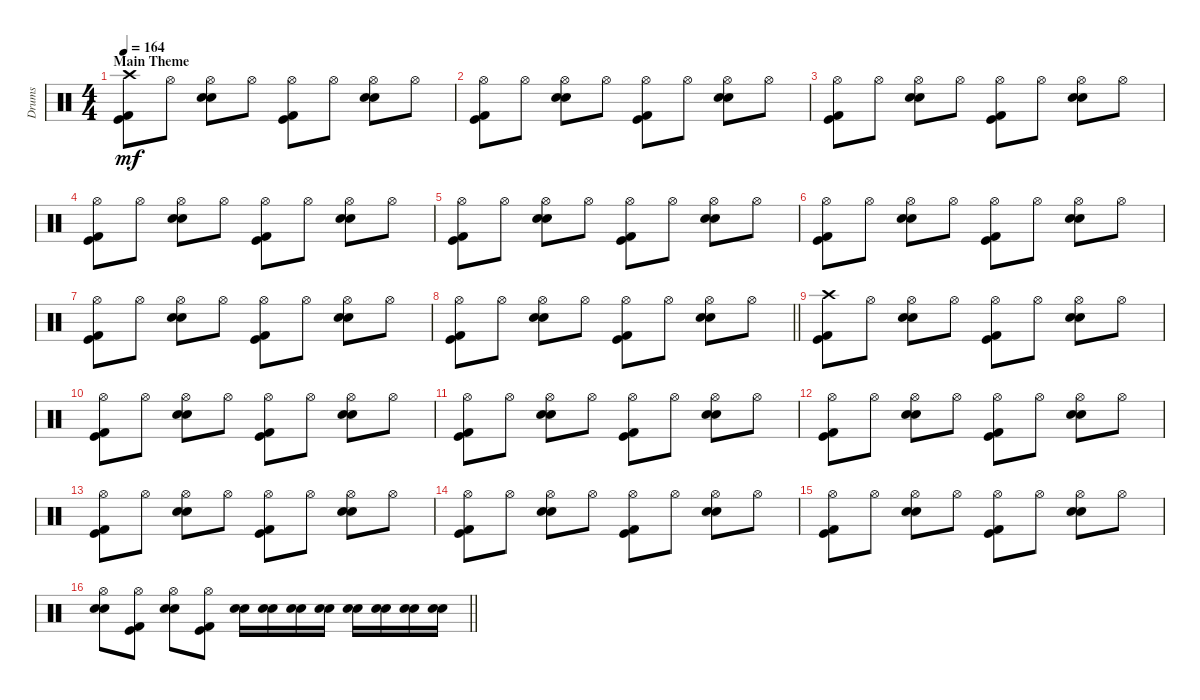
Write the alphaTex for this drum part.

\track ("Drums" "Drums") {instrument percussion}
\staff {score}
\articulation defaults
\ts (4 4)
\section ("" "Main Theme")
\tempo 164
\clef neutral
\ks c
("Crash high (hit)" "Kick (hit) 2" "Kick (hit)").8{dy mf} "Hi-Hat (open)".8 ("Hi-Hat (open)" "Snare (hit) 2" "Electric Snare (hit)").8 "Hi-Hat (open)".8 ("Hi-Hat (open)" "Kick (hit) 2" "Kick (hit)").8 "Hi-Hat (open)".8 ("Hi-Hat (open)" "Snare (hit) 2" "Electric Snare (hit)").8 "Hi-Hat (open)".8 |
("Hi-Hat (open)" "Kick (hit) 2" "Kick (hit)").8 "Hi-Hat (open)".8 ("Hi-Hat (open)" "Snare (hit) 2" "Electric Snare (hit)").8 "Hi-Hat (open)".8 ("Hi-Hat (open)" "Kick (hit) 2" "Kick (hit)").8 "Hi-Hat (open)".8 ("Hi-Hat (open)" "Snare (hit) 2" "Electric Snare (hit)").8 "Hi-Hat (open)".8 |
("Hi-Hat (open)" "Kick (hit) 2" "Kick (hit)").8 "Hi-Hat (open)".8 ("Hi-Hat (open)" "Snare (hit) 2" "Electric Snare (hit)").8 "Hi-Hat (open)".8 ("Hi-Hat (open)" "Kick (hit) 2" "Kick (hit)").8 "Hi-Hat (open)".8 ("Hi-Hat (open)" "Snare (hit) 2" "Electric Snare (hit)").8 "Hi-Hat (open)".8 |
("Hi-Hat (open)" "Kick (hit) 2" "Kick (hit)").8 "Hi-Hat (open)".8 ("Hi-Hat (open)" "Snare (hit) 2" "Electric Snare (hit)").8 "Hi-Hat (open)".8 ("Hi-Hat (open)" "Kick (hit) 2" "Kick (hit)").8 "Hi-Hat (open)".8 ("Hi-Hat (open)" "Snare (hit) 2" "Electric Snare (hit)").8 "Hi-Hat (open)".8 |
("Hi-Hat (open)" "Kick (hit) 2" "Kick (hit)").8 "Hi-Hat (open)".8 ("Hi-Hat (open)" "Snare (hit) 2" "Electric Snare (hit)").8 "Hi-Hat (open)".8 ("Hi-Hat (open)" "Kick (hit) 2" "Kick (hit)").8 "Hi-Hat (open)".8 ("Hi-Hat (open)" "Snare (hit) 2" "Electric Snare (hit)").8 "Hi-Hat (open)".8 |
("Hi-Hat (open)" "Kick (hit) 2" "Kick (hit)").8 "Hi-Hat (open)".8 ("Hi-Hat (open)" "Snare (hit) 2" "Electric Snare (hit)").8 "Hi-Hat (open)".8 ("Hi-Hat (open)" "Kick (hit) 2" "Kick (hit)").8 "Hi-Hat (open)".8 ("Hi-Hat (open)" "Snare (hit) 2" "Electric Snare (hit)").8 "Hi-Hat (open)".8 |
("Hi-Hat (open)" "Kick (hit) 2" "Kick (hit)").8 "Hi-Hat (open)".8 ("Hi-Hat (open)" "Snare (hit) 2" "Electric Snare (hit)").8 "Hi-Hat (open)".8 ("Hi-Hat (open)" "Kick (hit) 2" "Kick (hit)").8 "Hi-Hat (open)".8 ("Hi-Hat (open)" "Snare (hit) 2" "Electric Snare (hit)").8 "Hi-Hat (open)".8 |
\barLineRight lightlight
("Hi-Hat (open)" "Kick (hit) 2" "Kick (hit)").8 "Hi-Hat (open)".8 ("Hi-Hat (open)" "Snare (hit) 2" "Electric Snare (hit)").8 "Hi-Hat (open)".8 ("Hi-Hat (open)" "Kick (hit) 2" "Kick (hit)").8 "Hi-Hat (open)".8 ("Hi-Hat (open)" "Snare (hit) 2" "Electric Snare (hit)").8 "Hi-Hat (open)".8 |
("Crash high (hit)" "Kick (hit) 2" "Kick (hit)").8 "Hi-Hat (open)".8 ("Hi-Hat (open)" "Snare (hit) 2" "Electric Snare (hit)").8 "Hi-Hat (open)".8 ("Hi-Hat (open)" "Kick (hit) 2" "Kick (hit)").8 "Hi-Hat (open)".8 ("Hi-Hat (open)" "Snare (hit) 2" "Electric Snare (hit)").8 "Hi-Hat (open)".8 |
("Hi-Hat (open)" "Kick (hit) 2" "Kick (hit)").8 "Hi-Hat (open)".8 ("Hi-Hat (open)" "Snare (hit) 2" "Electric Snare (hit)").8 "Hi-Hat (open)".8 ("Hi-Hat (open)" "Kick (hit) 2" "Kick (hit)").8 "Hi-Hat (open)".8 ("Hi-Hat (open)" "Snare (hit) 2" "Electric Snare (hit)").8 "Hi-Hat (open)".8 |
("Hi-Hat (open)" "Kick (hit) 2" "Kick (hit)").8 "Hi-Hat (open)".8 ("Hi-Hat (open)" "Snare (hit) 2" "Electric Snare (hit)").8 "Hi-Hat (open)".8 ("Hi-Hat (open)" "Kick (hit) 2" "Kick (hit)").8 "Hi-Hat (open)".8 ("Hi-Hat (open)" "Snare (hit) 2" "Electric Snare (hit)").8 "Hi-Hat (open)".8 |
("Hi-Hat (open)" "Kick (hit) 2" "Kick (hit)").8 "Hi-Hat (open)".8 ("Hi-Hat (open)" "Snare (hit) 2" "Electric Snare (hit)").8 "Hi-Hat (open)".8 ("Hi-Hat (open)" "Kick (hit) 2" "Kick (hit)").8 "Hi-Hat (open)".8 ("Hi-Hat (open)" "Snare (hit) 2" "Electric Snare (hit)").8 "Hi-Hat (open)".8 |
("Hi-Hat (open)" "Kick (hit) 2" "Kick (hit)").8 "Hi-Hat (open)".8 ("Hi-Hat (open)" "Snare (hit) 2" "Electric Snare (hit)").8 "Hi-Hat (open)".8 ("Hi-Hat (open)" "Kick (hit) 2" "Kick (hit)").8 "Hi-Hat (open)".8 ("Hi-Hat (open)" "Snare (hit) 2" "Electric Snare (hit)").8 "Hi-Hat (open)".8 |
("Hi-Hat (open)" "Kick (hit) 2" "Kick (hit)").8 "Hi-Hat (open)".8 ("Hi-Hat (open)" "Snare (hit) 2" "Electric Snare (hit)").8 "Hi-Hat (open)".8 ("Hi-Hat (open)" "Kick (hit) 2" "Kick (hit)").8 "Hi-Hat (open)".8 ("Hi-Hat (open)" "Snare (hit) 2" "Electric Snare (hit)").8 "Hi-Hat (open)".8 |
("Hi-Hat (open)" "Kick (hit) 2" "Kick (hit)").8 "Hi-Hat (open)".8 ("Hi-Hat (open)" "Snare (hit) 2" "Electric Snare (hit)").8 "Hi-Hat (open)".8 ("Hi-Hat (open)" "Kick (hit) 2" "Kick (hit)").8 "Hi-Hat (open)".8 ("Hi-Hat (open)" "Snare (hit) 2" "Electric Snare (hit)").8 "Hi-Hat (open)".8 |
\barLineRight lightlight
("Hi-Hat (open)" "Snare (hit) 2" "Electric Snare (hit)").8 ("Hi-Hat (open)" "Kick (hit) 2" "Kick (hit)").8 ("Hi-Hat (open)" "Snare (hit) 2" "Electric Snare (hit)").8 ("Hi-Hat (open)" "Kick (hit) 2" "Kick (hit)").8 ("Snare (hit) 2" "Electric Snare (hit)").16 ("Snare (hit) 2" "Electric Snare (hit)").16 ("Snare (hit) 2" "Electric Snare (hit)").16 ("Snare (hit) 2" "Electric Snare (hit)").16 ("Snare (hit) 2" "Electric Snare (hit)").16 ("Snare (hit) 2" "Electric Snare (hit)").16 ("Snare (hit) 2" "Electric Snare (hit)").16 ("Snare (hit) 2" "Electric Snare (hit)").16
